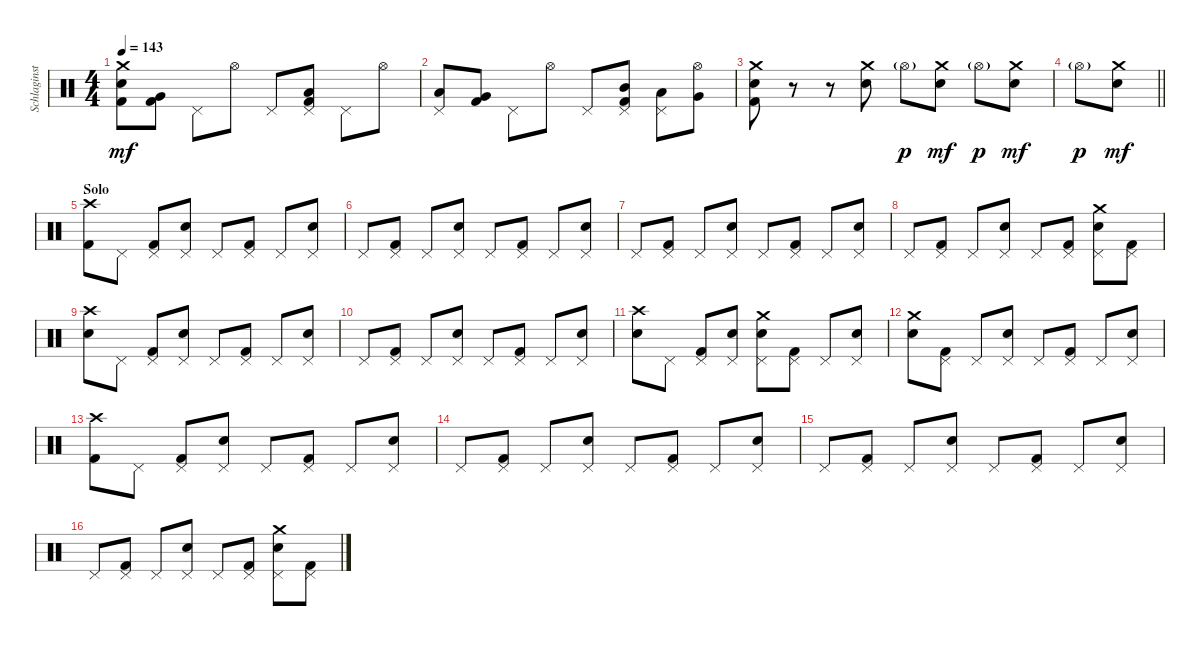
\track ("Schlaginstrumente - Auswahl" "Schlaginst") {instrument percussion}
\staff {score}
\articulation defaults
\ts (4 4)
\tempo 143
\clef neutral
\ks c
("Crash medium (hit)" "Electric Snare (hit)" "Kick (hit) 2").8{dy mf} ("Very Low Tom (hit)" "Kick (hit) 2").8 "Pedal Hi-Hat (hit)".8 "Hi-Hat (open)".8 "Pedal Hi-Hat (hit)".8 ("Pedal Hi-Hat (hit)" "Kick (hit) 2" "Low Tom (hit)").8 "Pedal Hi-Hat (hit)".8 "Hi-Hat (open)".8 |
("Pedal Hi-Hat (hit)" "Low Tom (hit)").8 ("Very Low Tom (hit)" "Kick (hit) 2").8 "Pedal Hi-Hat (hit)".8 "Hi-Hat (open)".8 "Pedal Hi-Hat (hit)".8 ("Pedal Hi-Hat (hit)" "Kick (hit) 2" "Mid Tom (hit)").8 ("Pedal Hi-Hat (hit)" "Low Tom (hit)").8 ("Hi-Hat (open)" "Very Low Tom (hit)").8 |
("Crash medium (hit)" "Electric Snare (hit)" "Kick (hit) 2").8 r.8 r.8 ("Crash medium (hit)" "Electric Snare (hit)").8 "Hi-Hat (open)"{g}.8{dy p} ("Crash medium (hit)" "Electric Snare (hit)").8{dy mf} "Hi-Hat (open)"{g}.8{dy p} ("Crash medium (hit)" "Electric Snare (hit)").8{dy mf} |
\barLineRight lightlight "Hi-Hat (open)"{g}.8{dy p}
("Crash medium (hit)" "Electric Snare (hit)").8{dy mf} |
\section ("" "Solo")
("Crash high (hit)" "Kick (hit) 2").8 "Pedal Hi-Hat (hit)".8 ("Pedal Hi-Hat (hit)" "Kick (hit) 2").8 ("Pedal Hi-Hat (hit)" "Electric Snare (hit)").8 "Pedal Hi-Hat (hit)".8 ("Pedal Hi-Hat (hit)" "Kick (hit) 2").8 "Pedal Hi-Hat (hit)".8 ("Pedal Hi-Hat (hit)" "Electric Snare (hit)").8 |
"Pedal Hi-Hat (hit)".8 ("Pedal Hi-Hat (hit)" "Kick (hit) 2").8 "Pedal Hi-Hat (hit)".8 ("Pedal Hi-Hat (hit)" "Electric Snare (hit)").8 "Pedal Hi-Hat (hit)".8 ("Pedal Hi-Hat (hit)" "Kick (hit) 2").8 "Pedal Hi-Hat (hit)".8 ("Pedal Hi-Hat (hit)" "Electric Snare (hit)").8 |
"Pedal Hi-Hat (hit)".8 ("Pedal Hi-Hat (hit)" "Kick (hit) 2").8 "Pedal Hi-Hat (hit)".8 ("Pedal Hi-Hat (hit)" "Electric Snare (hit)").8 "Pedal Hi-Hat (hit)".8 ("Pedal Hi-Hat (hit)" "Kick (hit) 2").8 "Pedal Hi-Hat (hit)".8 ("Pedal Hi-Hat (hit)" "Electric Snare (hit)").8 |
"Pedal Hi-Hat (hit)".8 ("Pedal Hi-Hat (hit)" "Kick (hit) 2").8 "Pedal Hi-Hat (hit)".8 ("Pedal Hi-Hat (hit)" "Electric Snare (hit)").8 "Pedal Hi-Hat (hit)".8 ("Pedal Hi-Hat (hit)" "Kick (hit) 2").8 ("Pedal Hi-Hat (hit)" "Crash medium (hit)" "Electric Snare (hit)").8 ("Pedal Hi-Hat (hit)" "Kick (hit) 2").8 |
("Crash high (hit)" "Electric Snare (hit)").8 "Pedal Hi-Hat (hit)".8 ("Pedal Hi-Hat (hit)" "Kick (hit) 2").8 ("Pedal Hi-Hat (hit)" "Electric Snare (hit)").8 "Pedal Hi-Hat (hit)".8 ("Pedal Hi-Hat (hit)" "Kick (hit) 2").8 "Pedal Hi-Hat (hit)".8 ("Pedal Hi-Hat (hit)" "Electric Snare (hit)").8 |
"Pedal Hi-Hat (hit)".8 ("Pedal Hi-Hat (hit)" "Kick (hit) 2").8 "Pedal Hi-Hat (hit)".8 ("Pedal Hi-Hat (hit)" "Electric Snare (hit)").8 "Pedal Hi-Hat (hit)".8 ("Pedal Hi-Hat (hit)" "Kick (hit) 2").8 "Pedal Hi-Hat (hit)".8 ("Pedal Hi-Hat (hit)" "Electric Snare (hit)").8 |
("Crash high (hit)" "Electric Snare (hit)").8 "Pedal Hi-Hat (hit)".8 ("Pedal Hi-Hat (hit)" "Kick (hit) 2").8 ("Pedal Hi-Hat (hit)" "Electric Snare (hit)").8 ("Pedal Hi-Hat (hit)" "Crash medium (hit)" "Electric Snare (hit)").8 ("Pedal Hi-Hat (hit)" "Kick (hit) 2").8 "Pedal Hi-Hat (hit)".8 ("Pedal Hi-Hat (hit)" "Electric Snare (hit)").8 |
("Crash medium (hit)" "Electric Snare (hit)").8 ("Pedal Hi-Hat (hit)" "Kick (hit) 2").8 "Pedal Hi-Hat (hit)".8 ("Pedal Hi-Hat (hit)" "Electric Snare (hit)").8 "Pedal Hi-Hat (hit)".8 ("Pedal Hi-Hat (hit)" "Kick (hit) 2").8 "Pedal Hi-Hat (hit)".8 ("Pedal Hi-Hat (hit)" "Electric Snare (hit)").8 |
("Crash high (hit)" "Kick (hit) 2").8 "Pedal Hi-Hat (hit)".8 ("Pedal Hi-Hat (hit)" "Kick (hit) 2").8 ("Pedal Hi-Hat (hit)" "Electric Snare (hit)").8 "Pedal Hi-Hat (hit)".8 ("Pedal Hi-Hat (hit)" "Kick (hit) 2").8 "Pedal Hi-Hat (hit)".8 ("Pedal Hi-Hat (hit)" "Electric Snare (hit)").8 |
"Pedal Hi-Hat (hit)".8 ("Pedal Hi-Hat (hit)" "Kick (hit) 2").8 "Pedal Hi-Hat (hit)".8 ("Pedal Hi-Hat (hit)" "Electric Snare (hit)").8 "Pedal Hi-Hat (hit)".8 ("Pedal Hi-Hat (hit)" "Kick (hit) 2").8 "Pedal Hi-Hat (hit)".8 ("Pedal Hi-Hat (hit)" "Electric Snare (hit)").8 |
"Pedal Hi-Hat (hit)".8 ("Pedal Hi-Hat (hit)" "Kick (hit) 2").8 "Pedal Hi-Hat (hit)".8 ("Pedal Hi-Hat (hit)" "Electric Snare (hit)").8 "Pedal Hi-Hat (hit)".8 ("Pedal Hi-Hat (hit)" "Kick (hit) 2").8 "Pedal Hi-Hat (hit)".8 ("Pedal Hi-Hat (hit)" "Electric Snare (hit)").8 |
"Pedal Hi-Hat (hit)".8 ("Pedal Hi-Hat (hit)" "Kick (hit) 2").8 "Pedal Hi-Hat (hit)".8 ("Pedal Hi-Hat (hit)" "Electric Snare (hit)").8 "Pedal Hi-Hat (hit)".8 ("Pedal Hi-Hat (hit)" "Kick (hit) 2").8 ("Pedal Hi-Hat (hit)" "Crash medium (hit)" "Electric Snare (hit)").8 ("Pedal Hi-Hat (hit)" "Kick (hit) 2").8
